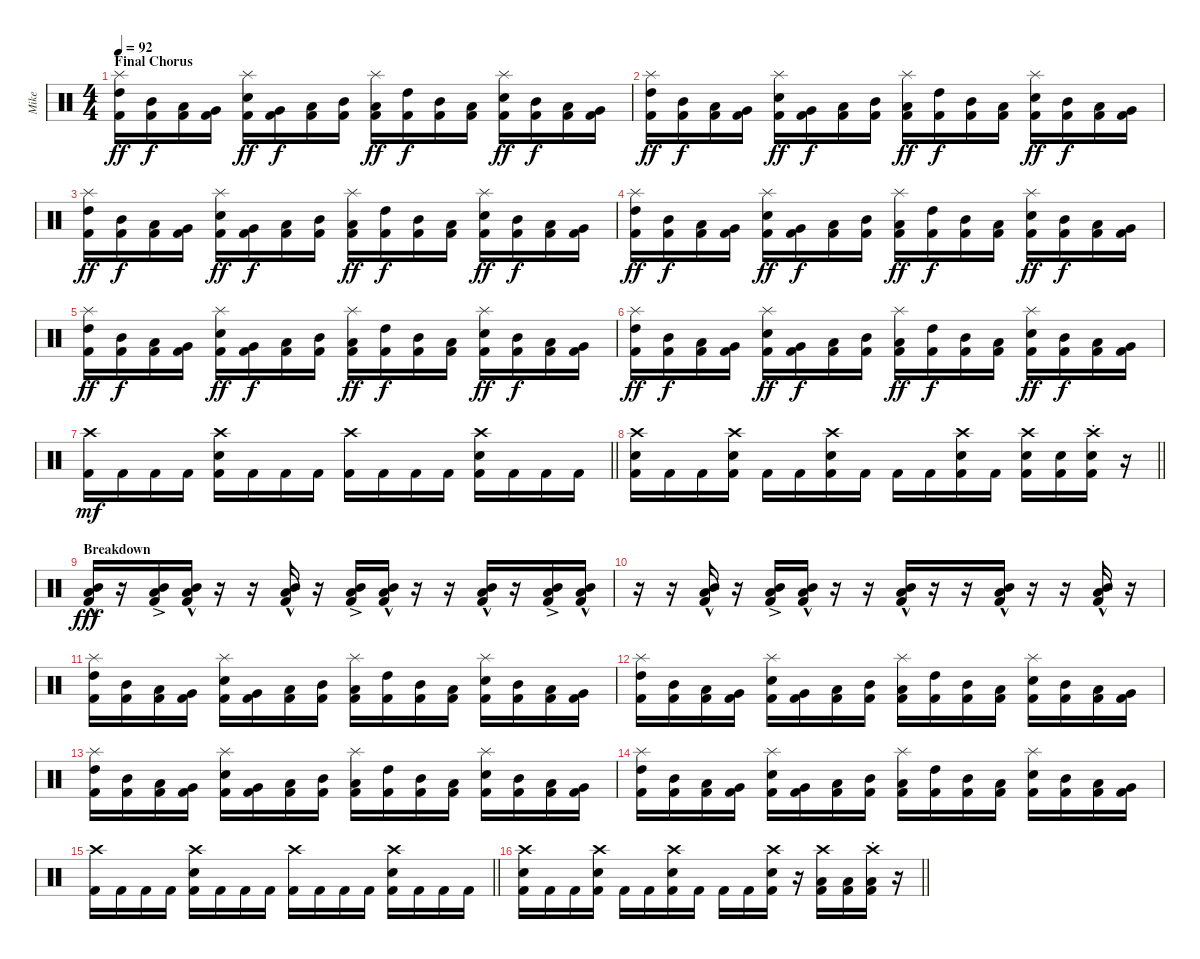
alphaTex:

\track ("Mike" "Mike") {instrument percussion}
\staff {score}
\articulation defaults
\ts (4 4)
\section ("" "Final Chorus")
\tempo 92
\clef neutral
\ks c
("Splash (hit)" "High Tom (hit)" "Kick (hit) 2").16{dy ff} ("Mid Tom (hit)" "Kick (hit) 2").16{dy f} ("Low Tom (hit)" "Kick (hit) 2").16 ("Very Low Tom (hit)" "Kick (hit) 2").16 ("Splash (hit)" "Snare (hit) 2" "Kick (hit) 2").16{dy ff} ("Very Low Tom (hit)" "Kick (hit) 2").16{dy f} ("Low Tom (hit)" "Kick (hit) 2").16 ("Mid Tom (hit)" "Kick (hit) 2").16 ("Splash (hit)" "Low Tom (hit)" "Kick (hit) 2").16{dy ff} ("High Tom (hit)" "Kick (hit) 2").16{dy f} ("Mid Tom (hit)" "Kick (hit) 2").16 ("Low Tom (hit)" "Kick (hit) 2").16 ("Splash (hit)" "Snare (hit) 2" "Kick (hit) 2").16{dy ff} ("Mid Tom (hit)" "Kick (hit) 2").16{dy f} ("Low Tom (hit)" "Kick (hit) 2").16 ("Very Low Tom (hit)" "Kick (hit) 2").16 |
("Splash (hit)" "High Tom (hit)" "Kick (hit) 2").16{dy ff} ("Mid Tom (hit)" "Kick (hit) 2").16{dy f} ("Low Tom (hit)" "Kick (hit) 2").16 ("Very Low Tom (hit)" "Kick (hit) 2").16 ("Splash (hit)" "Snare (hit) 2" "Kick (hit) 2").16{dy ff} ("Very Low Tom (hit)" "Kick (hit) 2").16{dy f} ("Low Tom (hit)" "Kick (hit) 2").16 ("Mid Tom (hit)" "Kick (hit) 2").16 ("Splash (hit)" "Low Tom (hit)" "Kick (hit) 2").16{dy ff} ("High Tom (hit)" "Kick (hit) 2").16{dy f} ("Mid Tom (hit)" "Kick (hit) 2").16 ("Low Tom (hit)" "Kick (hit) 2").16 ("Splash (hit)" "Snare (hit) 2" "Kick (hit) 2").16{dy ff} ("Mid Tom (hit)" "Kick (hit) 2").16{dy f} ("Low Tom (hit)" "Kick (hit) 2").16 ("Very Low Tom (hit)" "Kick (hit) 2").16 |
("Splash (hit)" "High Tom (hit)" "Kick (hit) 2").16{dy ff} ("Mid Tom (hit)" "Kick (hit) 2").16{dy f} ("Low Tom (hit)" "Kick (hit) 2").16 ("Very Low Tom (hit)" "Kick (hit) 2").16 ("Splash (hit)" "Snare (hit) 2" "Kick (hit) 2").16{dy ff} ("Very Low Tom (hit)" "Kick (hit) 2").16{dy f} ("Low Tom (hit)" "Kick (hit) 2").16 ("Mid Tom (hit)" "Kick (hit) 2").16 ("Splash (hit)" "Low Tom (hit)" "Kick (hit) 2").16{dy ff} ("High Tom (hit)" "Kick (hit) 2").16{dy f} ("Mid Tom (hit)" "Kick (hit) 2").16 ("Low Tom (hit)" "Kick (hit) 2").16 ("Splash (hit)" "Snare (hit) 2" "Kick (hit) 2").16{dy ff} ("Mid Tom (hit)" "Kick (hit) 2").16{dy f} ("Low Tom (hit)" "Kick (hit) 2").16 ("Very Low Tom (hit)" "Kick (hit) 2").16 |
("Splash (hit)" "High Tom (hit)" "Kick (hit) 2").16{dy ff} ("Mid Tom (hit)" "Kick (hit) 2").16{dy f} ("Low Tom (hit)" "Kick (hit) 2").16 ("Very Low Tom (hit)" "Kick (hit) 2").16 ("Splash (hit)" "Snare (hit) 2" "Kick (hit) 2").16{dy ff} ("Very Low Tom (hit)" "Kick (hit) 2").16{dy f} ("Low Tom (hit)" "Kick (hit) 2").16 ("Mid Tom (hit)" "Kick (hit) 2").16 ("Splash (hit)" "Low Tom (hit)" "Kick (hit) 2").16{dy ff} ("High Tom (hit)" "Kick (hit) 2").16{dy f} ("Mid Tom (hit)" "Kick (hit) 2").16 ("Low Tom (hit)" "Kick (hit) 2").16 ("Splash (hit)" "Snare (hit) 2" "Kick (hit) 2").16{dy ff} ("Mid Tom (hit)" "Kick (hit) 2").16{dy f} ("Low Tom (hit)" "Kick (hit) 2").16 ("Very Low Tom (hit)" "Kick (hit) 2").16 |
("Splash (hit)" "High Tom (hit)" "Kick (hit) 2").16{dy ff} ("Mid Tom (hit)" "Kick (hit) 2").16{dy f} ("Low Tom (hit)" "Kick (hit) 2").16 ("Very Low Tom (hit)" "Kick (hit) 2").16 ("Splash (hit)" "Snare (hit) 2" "Kick (hit) 2").16{dy ff} ("Very Low Tom (hit)" "Kick (hit) 2").16{dy f} ("Low Tom (hit)" "Kick (hit) 2").16 ("Mid Tom (hit)" "Kick (hit) 2").16 ("Splash (hit)" "Low Tom (hit)" "Kick (hit) 2").16{dy ff} ("High Tom (hit)" "Kick (hit) 2").16{dy f} ("Mid Tom (hit)" "Kick (hit) 2").16 ("Low Tom (hit)" "Kick (hit) 2").16 ("Splash (hit)" "Snare (hit) 2" "Kick (hit) 2").16{dy ff} ("Mid Tom (hit)" "Kick (hit) 2").16{dy f} ("Low Tom (hit)" "Kick (hit) 2").16 ("Very Low Tom (hit)" "Kick (hit) 2").16 |
("Splash (hit)" "High Tom (hit)" "Kick (hit) 2").16{dy ff} ("Mid Tom (hit)" "Kick (hit) 2").16{dy f} ("Low Tom (hit)" "Kick (hit) 2").16 ("Very Low Tom (hit)" "Kick (hit) 2").16 ("Splash (hit)" "Snare (hit) 2" "Kick (hit) 2").16{dy ff} ("Very Low Tom (hit)" "Kick (hit) 2").16{dy f} ("Low Tom (hit)" "Kick (hit) 2").16 ("Mid Tom (hit)" "Kick (hit) 2").16 ("Splash (hit)" "Low Tom (hit)" "Kick (hit) 2").16{dy ff} ("High Tom (hit)" "Kick (hit) 2").16{dy f} ("Mid Tom (hit)" "Kick (hit) 2").16 ("Low Tom (hit)" "Kick (hit) 2").16 ("Splash (hit)" "Snare (hit) 2" "Kick (hit) 2").16{dy ff} ("Mid Tom (hit)" "Kick (hit) 2").16{dy f} ("Low Tom (hit)" "Kick (hit) 2").16 ("Very Low Tom (hit)" "Kick (hit) 2").16 |
\barLineRight lightlight
("Crash high (hit)" "Kick (hit) 2").16{dy mf} "Kick (hit) 2".16 "Kick (hit) 2".16 "Kick (hit) 2".16 ("Crash high (hit)" "Snare (hit) 2" "Kick (hit) 2").16 "Kick (hit) 2".16 "Kick (hit) 2".16 "Kick (hit) 2".16 ("Crash high (hit)" "Kick (hit) 2").16 "Kick (hit) 2".16 "Kick (hit) 2".16 "Kick (hit) 2".16 ("Crash high (hit)" "Snare (hit) 2" "Kick (hit) 2").16 "Kick (hit) 2".16 "Kick (hit) 2".16 "Kick (hit) 2".16 |
\barLineRight lightlight
("Crash high (hit)" "Snare (hit) 2" "Kick (hit) 2").16 "Kick (hit) 2".16 "Kick (hit) 2".16 ("Crash high (hit)" "Snare (hit) 2" "Kick (hit) 2").16 "Kick (hit) 2".16 "Kick (hit) 2".16 ("Crash high (hit)" "Snare (hit) 2" "Kick (hit) 2").16 "Kick (hit) 2".16 "Kick (hit) 2".16 "Kick (hit) 2".16 ("Crash high (hit)" "Snare (hit) 2" "Kick (hit) 2").16 "Kick (hit) 2".16 ("Crash high (hit)" "Snare (hit) 2" "Kick (hit) 2").16 ("Snare (hit) 2" "Kick (hit) 2").16 ("Crash high (hit)"{st} "Snare (hit) 2" "Kick (hit) 2").16 r.16 |
\section ("" "Breakdown")
("Mid Tom (hit)"{hac} "Low Tom (hit)"{hac} "Kick (hit) 2"{hac}).16{dy fff} r.16 ("Mid Tom (hit)"{ac} "Low Tom (hit)"{ac} "Kick (hit) 2"{ac}).16 ("Mid Tom (hit)"{hac} "Low Tom (hit)"{hac} "Kick (hit) 2"{hac}).16 r.16 r.16 ("Mid Tom (hit)"{hac} "Low Tom (hit)"{hac} "Kick (hit) 2"{hac}).16 r.16 ("Mid Tom (hit)"{ac} "Low Tom (hit)"{ac} "Kick (hit) 2"{ac}).16 ("Mid Tom (hit)"{hac} "Low Tom (hit)"{hac} "Kick (hit) 2"{hac}).16 r.16 r.16 ("Mid Tom (hit)"{hac} "Low Tom (hit)"{hac} "Kick (hit) 2"{hac}).16 r.16 ("Mid Tom (hit)"{ac} "Low Tom (hit)"{ac} "Kick (hit) 2"{ac}).16 ("Mid Tom (hit)"{hac} "Low Tom (hit)"{hac} "Kick (hit) 2"{hac}).16 |
r.16 r.16 ("Mid Tom (hit)"{hac} "Low Tom (hit)"{hac} "Kick (hit) 2"{hac}).16 r.16 ("Mid Tom (hit)"{ac} "Low Tom (hit)"{ac} "Kick (hit) 2"{ac}).16 ("Mid Tom (hit)"{hac} "Low Tom (hit)"{hac} "Kick (hit) 2"{hac}).16 r.16 r.16 ("Mid Tom (hit)"{hac} "Low Tom (hit)"{hac} "Kick (hit) 2"{hac}).16 r.16 r.16 ("Mid Tom (hit)"{hac} "Low Tom (hit)"{hac} "Kick (hit) 2"{hac}).16 r.16 r.16 ("Mid Tom (hit)"{hac} "Low Tom (hit)"{hac} "Kick (hit) 2"{hac}).16 r.16 |
("Splash (hit)" "High Tom (hit)" "Kick (hit) 2").16 ("Mid Tom (hit)" "Kick (hit) 2").16 ("Low Tom (hit)" "Kick (hit) 2").16 ("Very Low Tom (hit)" "Kick (hit) 2").16 ("Splash (hit)" "Snare (hit) 2" "Kick (hit) 2").16 ("Very Low Tom (hit)" "Kick (hit) 2").16 ("Low Tom (hit)" "Kick (hit) 2").16 ("Mid Tom (hit)" "Kick (hit) 2").16 ("Splash (hit)" "Low Tom (hit)" "Kick (hit) 2").16 ("High Tom (hit)" "Kick (hit) 2").16 ("Mid Tom (hit)" "Kick (hit) 2").16 ("Low Tom (hit)" "Kick (hit) 2").16 ("Splash (hit)" "Snare (hit) 2" "Kick (hit) 2").16 ("Mid Tom (hit)" "Kick (hit) 2").16 ("Low Tom (hit)" "Kick (hit) 2").16 ("Very Low Tom (hit)" "Kick (hit) 2").16 |
("Splash (hit)" "High Tom (hit)" "Kick (hit) 2").16 ("Mid Tom (hit)" "Kick (hit) 2").16 ("Low Tom (hit)" "Kick (hit) 2").16 ("Very Low Tom (hit)" "Kick (hit) 2").16 ("Splash (hit)" "Snare (hit) 2" "Kick (hit) 2").16 ("Very Low Tom (hit)" "Kick (hit) 2").16 ("Low Tom (hit)" "Kick (hit) 2").16 ("Mid Tom (hit)" "Kick (hit) 2").16 ("Splash (hit)" "Low Tom (hit)" "Kick (hit) 2").16 ("High Tom (hit)" "Kick (hit) 2").16 ("Mid Tom (hit)" "Kick (hit) 2").16 ("Low Tom (hit)" "Kick (hit) 2").16 ("Splash (hit)" "Snare (hit) 2" "Kick (hit) 2").16 ("Mid Tom (hit)" "Kick (hit) 2").16 ("Low Tom (hit)" "Kick (hit) 2").16 ("Very Low Tom (hit)" "Kick (hit) 2").16 |
("Splash (hit)" "High Tom (hit)" "Kick (hit) 2").16 ("Mid Tom (hit)" "Kick (hit) 2").16 ("Low Tom (hit)" "Kick (hit) 2").16 ("Very Low Tom (hit)" "Kick (hit) 2").16 ("Splash (hit)" "Snare (hit) 2" "Kick (hit) 2").16 ("Very Low Tom (hit)" "Kick (hit) 2").16 ("Low Tom (hit)" "Kick (hit) 2").16 ("Mid Tom (hit)" "Kick (hit) 2").16 ("Splash (hit)" "Low Tom (hit)" "Kick (hit) 2").16 ("High Tom (hit)" "Kick (hit) 2").16 ("Mid Tom (hit)" "Kick (hit) 2").16 ("Low Tom (hit)" "Kick (hit) 2").16 ("Splash (hit)" "Snare (hit) 2" "Kick (hit) 2").16 ("Mid Tom (hit)" "Kick (hit) 2").16 ("Low Tom (hit)" "Kick (hit) 2").16 ("Very Low Tom (hit)" "Kick (hit) 2").16 |
("Splash (hit)" "High Tom (hit)" "Kick (hit) 2").16 ("Mid Tom (hit)" "Kick (hit) 2").16 ("Low Tom (hit)" "Kick (hit) 2").16 ("Very Low Tom (hit)" "Kick (hit) 2").16 ("Splash (hit)" "Snare (hit) 2" "Kick (hit) 2").16 ("Very Low Tom (hit)" "Kick (hit) 2").16 ("Low Tom (hit)" "Kick (hit) 2").16 ("Mid Tom (hit)" "Kick (hit) 2").16 ("Splash (hit)" "Low Tom (hit)" "Kick (hit) 2").16 ("High Tom (hit)" "Kick (hit) 2").16 ("Mid Tom (hit)" "Kick (hit) 2").16 ("Low Tom (hit)" "Kick (hit) 2").16 ("Splash (hit)" "Snare (hit) 2" "Kick (hit) 2").16 ("Mid Tom (hit)" "Kick (hit) 2").16 ("Low Tom (hit)" "Kick (hit) 2").16 ("Very Low Tom (hit)" "Kick (hit) 2").16 |
\barLineRight lightlight
("Crash high (hit)" "Kick (hit) 2").16 "Kick (hit) 2".16 "Kick (hit) 2".16 "Kick (hit) 2".16 ("Crash high (hit)" "Snare (hit) 2" "Kick (hit) 2").16 "Kick (hit) 2".16 "Kick (hit) 2".16 "Kick (hit) 2".16 ("Crash high (hit)" "Kick (hit) 2").16 "Kick (hit) 2".16 "Kick (hit) 2".16 "Kick (hit) 2".16 ("Crash high (hit)" "Snare (hit) 2" "Kick (hit) 2").16 "Kick (hit) 2".16 "Kick (hit) 2".16 "Kick (hit) 2".16 |
\barLineRight lightlight
("Crash high (hit)" "Snare (hit) 2" "Kick (hit) 2").16 "Kick (hit) 2".16 "Kick (hit) 2".16 ("Crash high (hit)" "Snare (hit) 2" "Kick (hit) 2").16 "Kick (hit) 2".16 "Kick (hit) 2".16 ("Crash high (hit)" "Snare (hit) 2" "Kick (hit) 2").16 "Kick (hit) 2".16 "Kick (hit) 2".16 "Kick (hit) 2".16 ("Crash high (hit)" "Snare (hit) 2" "Kick (hit) 2").16 r.16 ("Crash high (hit)" "Low Tom (hit)" "Kick (hit) 2").16 ("Low Tom (hit)" "Kick (hit) 2").16 ("Crash high (hit)"{st} "Low Tom (hit)" "Kick (hit) 2").16 r.16
